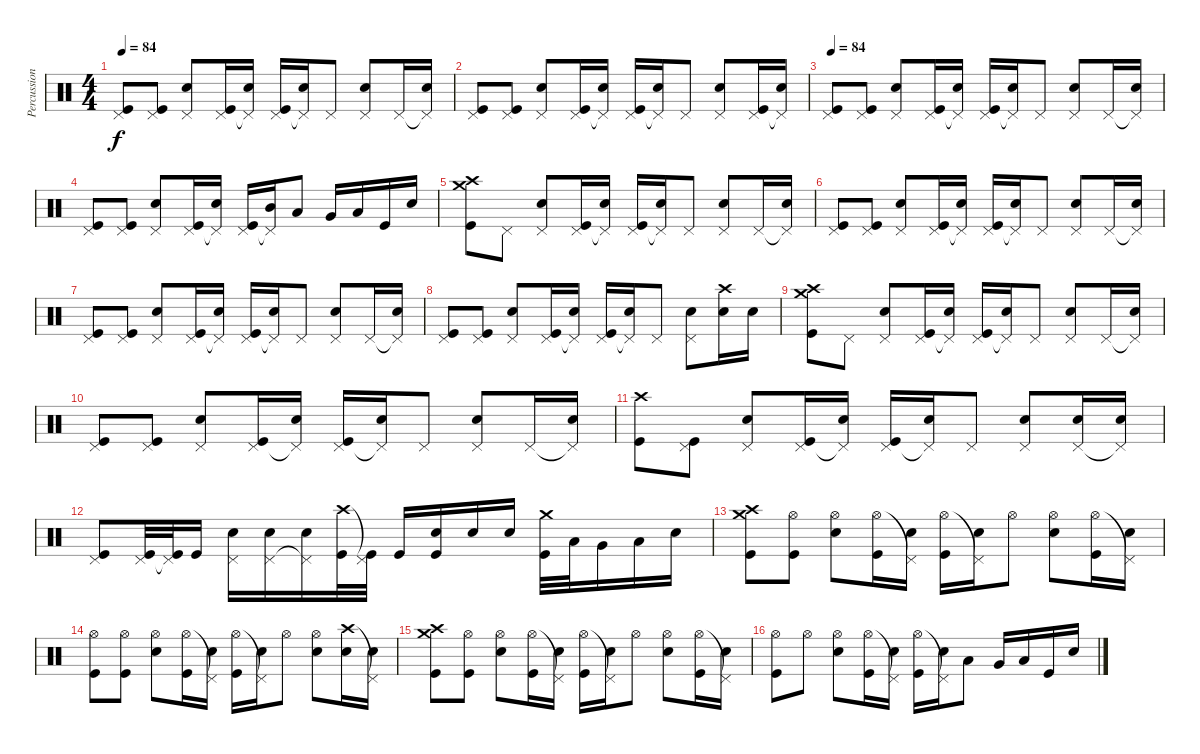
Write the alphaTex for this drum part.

\track ("Percussion" "Percussion") {instrument percussion}
\staff {score}
\articulation defaults
\ts (4 4)
\tempo 84
\clef neutral
\ks c
("Pedal Hi-Hat (hit)" "Kick (hit)").8{dy f} ("Pedal Hi-Hat (hit)" "Kick (hit)").8 ("Pedal Hi-Hat (hit)" "Electric Snare (hit)").8 ("Pedal Hi-Hat (hit)" "Kick (hit)").16 ("Pedal Hi-Hat (hit)"{t} "Electric Snare (hit)").16 ("Pedal Hi-Hat (hit)" "Kick (hit)").16 ("Pedal Hi-Hat (hit)"{t} "Electric Snare (hit)").16 "Pedal Hi-Hat (hit)".8 ("Pedal Hi-Hat (hit)" "Electric Snare (hit)").8 "Pedal Hi-Hat (hit)".16 ("Pedal Hi-Hat (hit)"{t} "Electric Snare (hit)").16 |
("Pedal Hi-Hat (hit)" "Kick (hit)").8 ("Pedal Hi-Hat (hit)" "Kick (hit)").8 ("Pedal Hi-Hat (hit)" "Electric Snare (hit)").8 ("Pedal Hi-Hat (hit)" "Kick (hit)").16 ("Pedal Hi-Hat (hit)"{t} "Electric Snare (hit)").16 ("Pedal Hi-Hat (hit)" "Kick (hit)").16 ("Pedal Hi-Hat (hit)"{t} "Electric Snare (hit)").16 "Pedal Hi-Hat (hit)".8 ("Pedal Hi-Hat (hit)" "Electric Snare (hit)").8 ("Pedal Hi-Hat (hit)" "Kick (hit)").16 ("Pedal Hi-Hat (hit)"{t} "Electric Snare (hit)").16 |
\tempo 84
("Pedal Hi-Hat (hit)" "Kick (hit)").8 ("Pedal Hi-Hat (hit)" "Kick (hit)").8 ("Pedal Hi-Hat (hit)" "Electric Snare (hit)").8 ("Pedal Hi-Hat (hit)" "Kick (hit)").16 ("Pedal Hi-Hat (hit)"{t} "Electric Snare (hit)").16 ("Pedal Hi-Hat (hit)" "Kick (hit)").16 ("Pedal Hi-Hat (hit)"{t} "Electric Snare (hit)").16 "Pedal Hi-Hat (hit)".8 ("Pedal Hi-Hat (hit)" "Electric Snare (hit)").8 "Pedal Hi-Hat (hit)".16 ("Pedal Hi-Hat (hit)"{t} "Electric Snare (hit)").16 |
("Pedal Hi-Hat (hit)" "Kick (hit)").8 ("Pedal Hi-Hat (hit)" "Kick (hit)").8 ("Pedal Hi-Hat (hit)" "Electric Snare (hit)").8 ("Pedal Hi-Hat (hit)" "Kick (hit)").16 ("Pedal Hi-Hat (hit)"{t} "Electric Snare (hit)").16 ("Pedal Hi-Hat (hit)" "Kick (hit)").16 ("Pedal Hi-Hat (hit)"{t} "Mid Tom (hit)").16 "Low Tom (hit)".8 "Very Low Tom (hit)".16 "Low Floor Tom (hit)".16 "Kick (hit)".16 "Electric Snare (hit)".16 |
("Crash medium (hit)" "Crash high (hit)" "Kick (hit)").8 "Pedal Hi-Hat (hit)".8 ("Pedal Hi-Hat (hit)" "Electric Snare (hit)").8 ("Pedal Hi-Hat (hit)" "Kick (hit)").16 ("Pedal Hi-Hat (hit)"{t} "Electric Snare (hit)").16 ("Pedal Hi-Hat (hit)" "Kick (hit)").16 ("Pedal Hi-Hat (hit)"{t} "Electric Snare (hit)").16 "Pedal Hi-Hat (hit)".8 ("Pedal Hi-Hat (hit)" "Electric Snare (hit)").8 "Pedal Hi-Hat (hit)".16 ("Pedal Hi-Hat (hit)"{t} "Electric Snare (hit)").16 |
("Pedal Hi-Hat (hit)" "Kick (hit)").8 ("Pedal Hi-Hat (hit)" "Kick (hit)").8 ("Pedal Hi-Hat (hit)" "Electric Snare (hit)").8 ("Pedal Hi-Hat (hit)" "Kick (hit)").16 ("Pedal Hi-Hat (hit)"{t} "Electric Snare (hit)").16 ("Pedal Hi-Hat (hit)" "Kick (hit)").16 ("Pedal Hi-Hat (hit)"{t} "Electric Snare (hit)").16 "Pedal Hi-Hat (hit)".8 ("Pedal Hi-Hat (hit)" "Electric Snare (hit)").8 "Pedal Hi-Hat (hit)".16 ("Pedal Hi-Hat (hit)"{t} "Electric Snare (hit)").16 |
("Pedal Hi-Hat (hit)" "Kick (hit)").8 ("Pedal Hi-Hat (hit)" "Kick (hit)").8 ("Pedal Hi-Hat (hit)" "Electric Snare (hit)").8 ("Pedal Hi-Hat (hit)" "Kick (hit)").16 ("Pedal Hi-Hat (hit)"{t} "Electric Snare (hit)").16 ("Pedal Hi-Hat (hit)" "Kick (hit)").16 ("Pedal Hi-Hat (hit)"{t} "Electric Snare (hit)").16 "Pedal Hi-Hat (hit)".8 ("Pedal Hi-Hat (hit)" "Electric Snare (hit)").8 "Pedal Hi-Hat (hit)".16 ("Pedal Hi-Hat (hit)"{t} "Electric Snare (hit)").16 |
("Pedal Hi-Hat (hit)" "Kick (hit)").8 ("Pedal Hi-Hat (hit)" "Kick (hit)").8 ("Pedal Hi-Hat (hit)" "Electric Snare (hit)").8 ("Pedal Hi-Hat (hit)" "Kick (hit)").16 ("Pedal Hi-Hat (hit)"{t} "Electric Snare (hit)").16 ("Pedal Hi-Hat (hit)" "Kick (hit)").16 ("Pedal Hi-Hat (hit)"{t} "Electric Snare (hit)").16 "Pedal Hi-Hat (hit)".8 ("Pedal Hi-Hat (hit)" "Electric Snare (hit)").8 ("Crash high (hit)" "Electric Snare (hit)").16 "Electric Snare (hit)".16 |
("Crash high (hit)" "Crash medium (hit)" "Kick (hit)").8 "Pedal Hi-Hat (hit)".8 ("Pedal Hi-Hat (hit)" "Electric Snare (hit)").8 ("Pedal Hi-Hat (hit)" "Kick (hit)").16 ("Pedal Hi-Hat (hit)"{t} "Electric Snare (hit)").16 ("Pedal Hi-Hat (hit)" "Kick (hit)").16 ("Pedal Hi-Hat (hit)"{t} "Electric Snare (hit)").16 "Pedal Hi-Hat (hit)".8 ("Pedal Hi-Hat (hit)" "Electric Snare (hit)").8 "Pedal Hi-Hat (hit)".16 ("Pedal Hi-Hat (hit)"{t} "Electric Snare (hit)").16 |
("Pedal Hi-Hat (hit)" "Kick (hit)").8 ("Pedal Hi-Hat (hit)" "Kick (hit)").8 ("Pedal Hi-Hat (hit)" "Electric Snare (hit)").8 ("Pedal Hi-Hat (hit)" "Kick (hit)").16 ("Pedal Hi-Hat (hit)"{t} "Electric Snare (hit)").16 ("Pedal Hi-Hat (hit)" "Kick (hit)").16 ("Pedal Hi-Hat (hit)"{t} "Electric Snare (hit)").16 "Pedal Hi-Hat (hit)".8 ("Pedal Hi-Hat (hit)" "Electric Snare (hit)").8 "Pedal Hi-Hat (hit)".16 ("Pedal Hi-Hat (hit)"{t} "Electric Snare (hit)").16 |
("Crash high (hit)" "Kick (hit)").8 ("Pedal Hi-Hat (hit)" "Kick (hit)").8 ("Pedal Hi-Hat (hit)" "Electric Snare (hit)").8 ("Pedal Hi-Hat (hit)" "Kick (hit)").16 ("Pedal Hi-Hat (hit)"{t} "Electric Snare (hit)").16 ("Pedal Hi-Hat (hit)" "Kick (hit)").16 ("Pedal Hi-Hat (hit)"{t} "Electric Snare (hit)").16 "Pedal Hi-Hat (hit)".8 ("Pedal Hi-Hat (hit)" "Electric Snare (hit)").8 ("Pedal Hi-Hat (hit)" "Electric Snare (hit)").16 ("Pedal Hi-Hat (hit)"{t} "Electric Snare (hit)").16 |
("Pedal Hi-Hat (hit)" "Kick (hit)").8 ("Pedal Hi-Hat (hit)" "Kick (hit)").32 ("Pedal Hi-Hat (hit)"{t} "Kick (hit)").32 "Kick (hit)".16 ("Pedal Hi-Hat (hit)" "Electric Snare (hit)").16 ("Pedal Hi-Hat (hit)" "Electric Snare (hit)").16 ("Pedal Hi-Hat (hit)"{t} "Electric Snare (hit)").16 ("Crash high (hit)" "Kick (hit)").32 ("Pedal Hi-Hat (hit)"{t} "Kick (hit)").32 "Kick (hit)".16 ("Electric Snare (hit)" "Kick (hit)").16 "Electric Snare (hit)".16 "Electric Snare (hit)".16 ("Crash medium (hit)" "Kick (hit)").32 "Low Tom (hit)".32 "Very Low Tom (hit)".16 "Low Floor Tom (hit)".16 "Electric Snare (hit)".16 |
("Crash medium (hit)" "Crash high (hit)" "Kick (hit)").8 ("Hi-Hat (open)" "Kick (hit)").8 ("Hi-Hat (open)" "Electric Snare (hit)").8 ("Hi-Hat (open)" "Kick (hit)").16 ("Pedal Hi-Hat (hit)"{t} "Electric Snare (hit)").16 ("Hi-Hat (open)" "Kick (hit)").16 ("Pedal Hi-Hat (hit)"{t} "Electric Snare (hit)").16 "Hi-Hat (open)".8 ("Hi-Hat (open)" "Electric Snare (hit)").8 ("Hi-Hat (open)" "Kick (hit)").16 ("Pedal Hi-Hat (hit)"{t} "Electric Snare (hit)").16 |
("Hi-Hat (open)" "Kick (hit)").8 ("Hi-Hat (open)" "Kick (hit)").8 ("Hi-Hat (open)" "Electric Snare (hit)").8 ("Hi-Hat (open)" "Kick (hit)").16 ("Pedal Hi-Hat (hit)"{t} "Electric Snare (hit)").16 ("Hi-Hat (open)" "Kick (hit)").16 ("Pedal Hi-Hat (hit)"{t} "Electric Snare (hit)").16 "Hi-Hat (open)".8 ("Hi-Hat (open)" "Electric Snare (hit)").8 ("Crash high (hit)" "Electric Snare (hit)").16 ("Pedal Hi-Hat (hit)"{t} "Electric Snare (hit)").16 |
("Crash medium (hit)" "Crash high (hit)" "Kick (hit)").8 ("Hi-Hat (open)" "Kick (hit)").8 ("Hi-Hat (open)" "Electric Snare (hit)").8 ("Hi-Hat (open)" "Kick (hit)").16 ("Pedal Hi-Hat (hit)"{t} "Electric Snare (hit)").16 ("Hi-Hat (open)" "Kick (hit)").16 ("Pedal Hi-Hat (hit)"{t} "Electric Snare (hit)").16 "Hi-Hat (open)".8 ("Hi-Hat (open)" "Electric Snare (hit)").8 ("Hi-Hat (open)" "Kick (hit)").16 ("Pedal Hi-Hat (hit)"{t} "Electric Snare (hit)").16 |
("Hi-Hat (open)" "Kick (hit)").8 "Hi-Hat (open)".8 ("Hi-Hat (open)" "Electric Snare (hit)").8 ("Hi-Hat (open)" "Kick (hit)").16 ("Pedal Hi-Hat (hit)"{t} "Electric Snare (hit)").16 ("Hi-Hat (open)" "Kick (hit)").16 ("Pedal Hi-Hat (hit)"{t} "Electric Snare (hit)").16 "Low Tom (hit)".8 "Very Low Tom (hit)".16 "Low Floor Tom (hit)".16 "Kick (hit)".16 "Electric Snare (hit)".16
